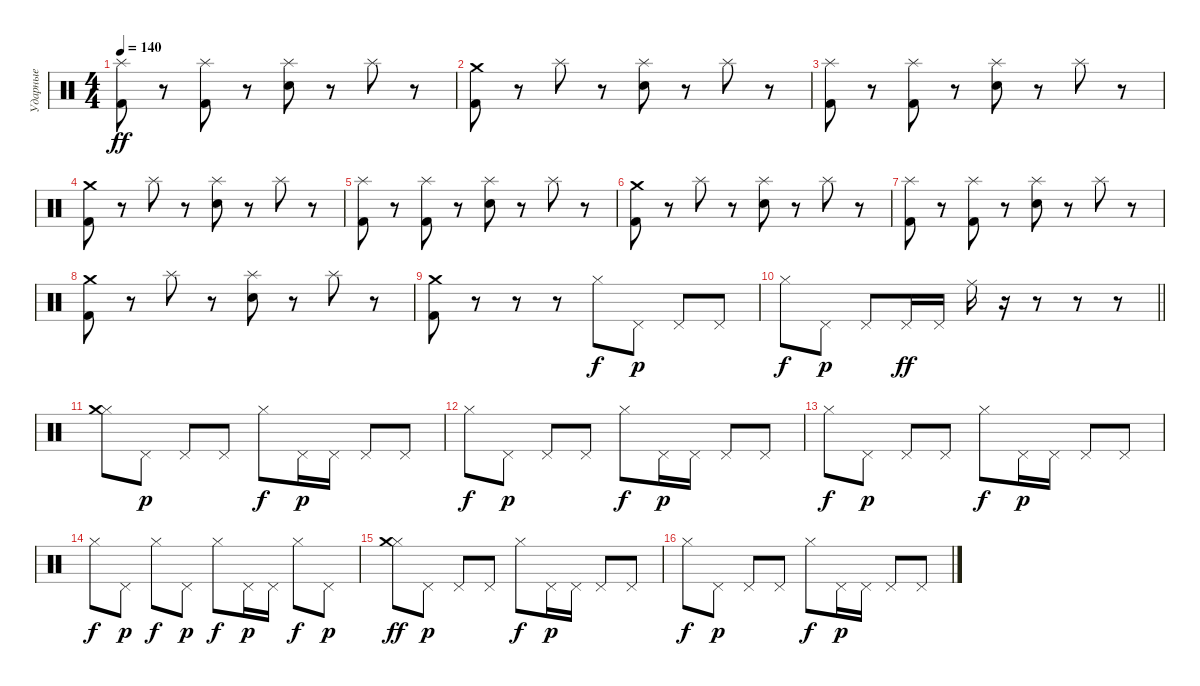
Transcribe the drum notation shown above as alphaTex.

\track ("Ударные" "Ударные") {instrument percussion}
\staff {score}
\articulation defaults
\ts (4 4)
\tempo 140
\clef neutral
\ks c
("Kick (hit) 2" "Splash (hit)").8{dy ff} r.8 ("Kick (hit) 2" "Splash (hit)").8 r.8 ("Snare (hit) 2" "Splash (hit)").8 r.8 "Splash (hit)".8 r.8 |
("Kick (hit) 2" "Crash medium (hit)").8 r.8 "Splash (hit)".8 r.8 ("Snare (hit) 2" "Splash (hit)").8 r.8 "Splash (hit)".8 r.8 |
("Kick (hit) 2" "Splash (hit)").8 r.8 ("Kick (hit) 2" "Splash (hit)").8 r.8 ("Snare (hit) 2" "Splash (hit)").8 r.8 "Splash (hit)".8 r.8 |
("Kick (hit) 2" "Crash medium (hit)").8 r.8 "Splash (hit)".8 r.8 ("Snare (hit) 2" "Splash (hit)").8 r.8 "Splash (hit)".8 r.8 |
("Kick (hit) 2" "Splash (hit)").8 r.8 ("Kick (hit) 2" "Splash (hit)").8 r.8 ("Snare (hit) 2" "Splash (hit)").8 r.8 "Splash (hit)".8 r.8 |
("Kick (hit) 2" "Crash medium (hit)").8 r.8 "Splash (hit)".8 r.8 ("Snare (hit) 2" "Splash (hit)").8 r.8 "Splash (hit)".8 r.8 |
("Kick (hit) 2" "Splash (hit)").8 r.8 ("Kick (hit) 2" "Splash (hit)").8 r.8 ("Snare (hit) 2" "Splash (hit)").8 r.8 "Splash (hit)".8 r.8 |
("Kick (hit) 2" "Crash medium (hit)").8 r.8 "Splash (hit)".8 r.8 ("Snare (hit) 2" "Splash (hit)").8 r.8 "Splash (hit)".8 r.8 |
("Kick (hit) 2" "Crash medium (hit)").8 r.8 r.8 r.8 "Hi-Hat (closed)".8{dy f} "Pedal Hi-Hat (hit)".8{dy p} "Pedal Hi-Hat (hit)".8 "Pedal Hi-Hat (hit)".8 |
\barLineRight lightlight "Hi-Hat (closed)".8{dy f} "Pedal Hi-Hat (hit)".8{dy p} "Pedal Hi-Hat (hit)".8 "Pedal Hi-Hat (hit)".16{dy ff} "Pedal Hi-Hat (hit)".16 "Ride (middle)".16
r.16 r.8 r.8 r.8 |
\section ("" "")
("Hi-Hat (closed)" "Crash medium (hit)").8 "Pedal Hi-Hat (hit)".8{dy p} "Pedal Hi-Hat (hit)".8 "Pedal Hi-Hat (hit)".8 "Hi-Hat (closed)".8{dy f} "Pedal Hi-Hat (hit)".16{dy p} "Pedal Hi-Hat (hit)".16 "Pedal Hi-Hat (hit)".8 "Pedal Hi-Hat (hit)".8 |
"Hi-Hat (closed)".8{dy f} "Pedal Hi-Hat (hit)".8{dy p} "Pedal Hi-Hat (hit)".8 "Pedal Hi-Hat (hit)".8 "Hi-Hat (closed)".8{dy f} "Pedal Hi-Hat (hit)".16{dy p} "Pedal Hi-Hat (hit)".16 "Pedal Hi-Hat (hit)".8 "Pedal Hi-Hat (hit)".8 |
"Hi-Hat (closed)".8{dy f} "Pedal Hi-Hat (hit)".8{dy p} "Pedal Hi-Hat (hit)".8 "Pedal Hi-Hat (hit)".8 "Hi-Hat (closed)".8{dy f} "Pedal Hi-Hat (hit)".16{dy p} "Pedal Hi-Hat (hit)".16 "Pedal Hi-Hat (hit)".8 "Pedal Hi-Hat (hit)".8 |
"Hi-Hat (closed)".8{dy f} "Pedal Hi-Hat (hit)".8{dy p} "Hi-Hat (closed)".8{dy f} "Pedal Hi-Hat (hit)".8{dy p} "Hi-Hat (closed)".8{dy f} "Pedal Hi-Hat (hit)".16{dy p} "Pedal Hi-Hat (hit)".16 "Hi-Hat (closed)".8{dy f} "Pedal Hi-Hat (hit)".8{dy p} |
("Hi-Hat (closed)" "Crash medium (hit)").8{dy ff} "Pedal Hi-Hat (hit)".8{dy p} "Pedal Hi-Hat (hit)".8 "Pedal Hi-Hat (hit)".8 "Hi-Hat (closed)".8{dy f} "Pedal Hi-Hat (hit)".16{dy p} "Pedal Hi-Hat (hit)".16 "Pedal Hi-Hat (hit)".8 "Pedal Hi-Hat (hit)".8 |
"Hi-Hat (closed)".8{dy f} "Pedal Hi-Hat (hit)".8{dy p} "Pedal Hi-Hat (hit)".8 "Pedal Hi-Hat (hit)".8 "Hi-Hat (closed)".8{dy f} "Pedal Hi-Hat (hit)".16{dy p} "Pedal Hi-Hat (hit)".16 "Pedal Hi-Hat (hit)".8 "Pedal Hi-Hat (hit)".8
